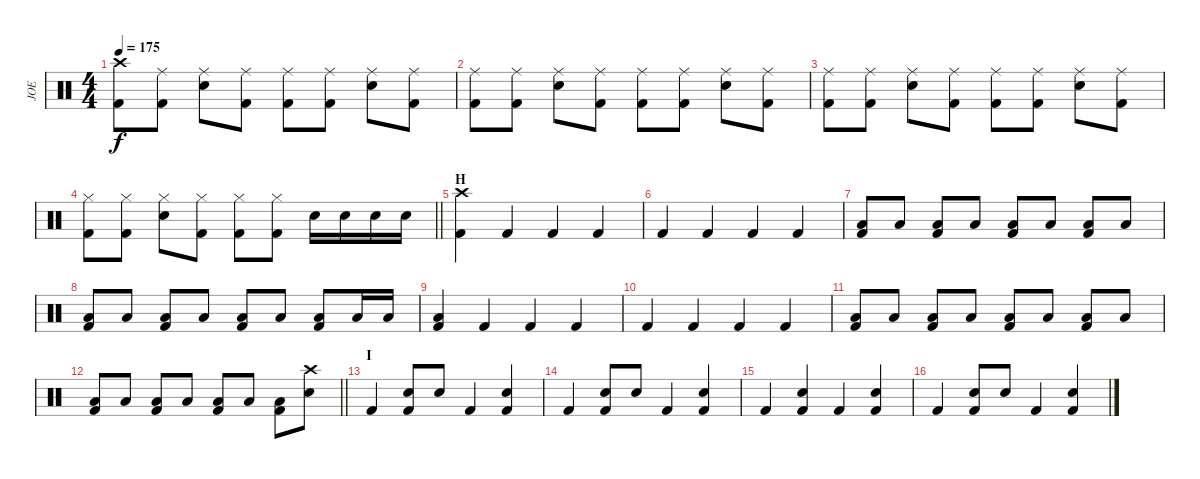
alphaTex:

\track ("JOE" "JOE") {instrument percussion}
\staff {score}
\articulation defaults
\ts (4 4)
\tempo 175
\clef neutral
\ks c
("Crash high (hit)" "Kick (hit) 2").8{dy f} ("Ride (middle)" "Kick (hit) 2").8 ("Ride (middle)" "Snare (hit) 2").8 ("Ride (middle)" "Kick (hit) 2").8 ("Ride (middle)" "Kick (hit) 2").8 ("Ride (middle)" "Kick (hit) 2").8 ("Ride (middle)" "Snare (hit) 2").8 ("Ride (middle)" "Kick (hit) 2").8 |
("Ride (middle)" "Kick (hit) 2").8 ("Ride (middle)" "Kick (hit) 2").8 ("Ride (middle)" "Snare (hit) 2").8 ("Ride (middle)" "Kick (hit) 2").8 ("Ride (middle)" "Kick (hit) 2").8 ("Ride (middle)" "Kick (hit) 2").8 ("Ride (middle)" "Snare (hit) 2").8 ("Ride (middle)" "Kick (hit) 2").8 |
("Ride (middle)" "Kick (hit) 2").8 ("Ride (middle)" "Kick (hit) 2").8 ("Ride (middle)" "Snare (hit) 2").8 ("Ride (middle)" "Kick (hit) 2").8 ("Ride (middle)" "Kick (hit) 2").8 ("Ride (middle)" "Kick (hit) 2").8 ("Ride (middle)" "Snare (hit) 2").8 ("Ride (middle)" "Kick (hit) 2").8 |
\barLineRight lightlight
("Hi-Hat (closed)" "Kick (hit) 2").8 ("Hi-Hat (closed)" "Kick (hit) 2").8 ("Hi-Hat (closed)" "Snare (hit) 2").8 ("Hi-Hat (closed)" "Kick (hit) 2").8 ("Hi-Hat (closed)" "Kick (hit) 2").8 ("Hi-Hat (closed)" "Kick (hit) 2").8 "Snare (hit) 2".16 "Snare (hit) 2".16 "Snare (hit) 2".16 "Snare (hit) 2".16 |
\section ("" "H")
("Crash high (hit)" "Kick (hit) 2").4 "Kick (hit) 2".4 "Kick (hit) 2".4 "Kick (hit) 2".4 |
"Kick (hit) 2".4 "Kick (hit) 2".4 "Kick (hit) 2".4 "Kick (hit) 2".4 |
("Low Floor Tom (hit)" "Kick (hit) 2").8 "Low Floor Tom (hit)".8 ("Low Floor Tom (hit)" "Kick (hit) 2").8 "Low Floor Tom (hit)".8 ("Low Floor Tom (hit)" "Kick (hit) 2").8 "Low Floor Tom (hit)".8 ("Low Floor Tom (hit)" "Kick (hit) 2").8 "Low Floor Tom (hit)".8 |
("Low Floor Tom (hit)" "Kick (hit) 2").8 "Low Floor Tom (hit)".8 ("Low Floor Tom (hit)" "Kick (hit) 2").8 "Low Floor Tom (hit)".8 ("Low Floor Tom (hit)" "Kick (hit) 2").8 "Low Floor Tom (hit)".8 ("Low Floor Tom (hit)" "Kick (hit) 2").8 "Low Floor Tom (hit)".16 "Low Floor Tom (hit)".16 |
("Low Floor Tom (hit)" "Kick (hit) 2").4 "Kick (hit) 2".4 "Kick (hit) 2".4 "Kick (hit) 2".4 |
"Kick (hit) 2".4 "Kick (hit) 2".4 "Kick (hit) 2".4 "Kick (hit) 2".4 |
("Low Floor Tom (hit)" "Kick (hit) 2").8 "Low Floor Tom (hit)".8 ("Low Floor Tom (hit)" "Kick (hit) 2").8 "Low Floor Tom (hit)".8 ("Low Floor Tom (hit)" "Kick (hit) 2").8 "Low Floor Tom (hit)".8 ("Low Floor Tom (hit)" "Kick (hit) 2").8 "Low Floor Tom (hit)".8 |
\barLineRight lightlight
("Low Floor Tom (hit)" "Kick (hit) 2").8 "Low Floor Tom (hit)".8 ("Low Floor Tom (hit)" "Kick (hit) 2").8 "Low Floor Tom (hit)".8 ("Low Floor Tom (hit)" "Kick (hit) 2").8 "Low Floor Tom (hit)".8 ("Low Floor Tom (hit)" "Kick (hit) 2").8 ("Crash high (hit)" "Snare (hit) 2").8 |
\section ("" "I")
"Kick (hit) 2".4 ("Snare (hit) 2" "Kick (hit) 2").8 "Snare (hit) 2".8 "Kick (hit) 2".4 ("Snare (hit) 2" "Kick (hit) 2").4 |
"Kick (hit) 2".4 ("Snare (hit) 2" "Kick (hit) 2").8 "Snare (hit) 2".8 "Kick (hit) 2".4 ("Snare (hit) 2" "Kick (hit) 2").4 |
"Kick (hit) 2".4 ("Snare (hit) 2" "Kick (hit) 2").4 "Kick (hit) 2".4 ("Snare (hit) 2" "Kick (hit) 2").4 |
"Kick (hit) 2".4 ("Snare (hit) 2" "Kick (hit) 2").8 "Snare (hit) 2".8 "Kick (hit) 2".4 ("Snare (hit) 2" "Kick (hit) 2").4
